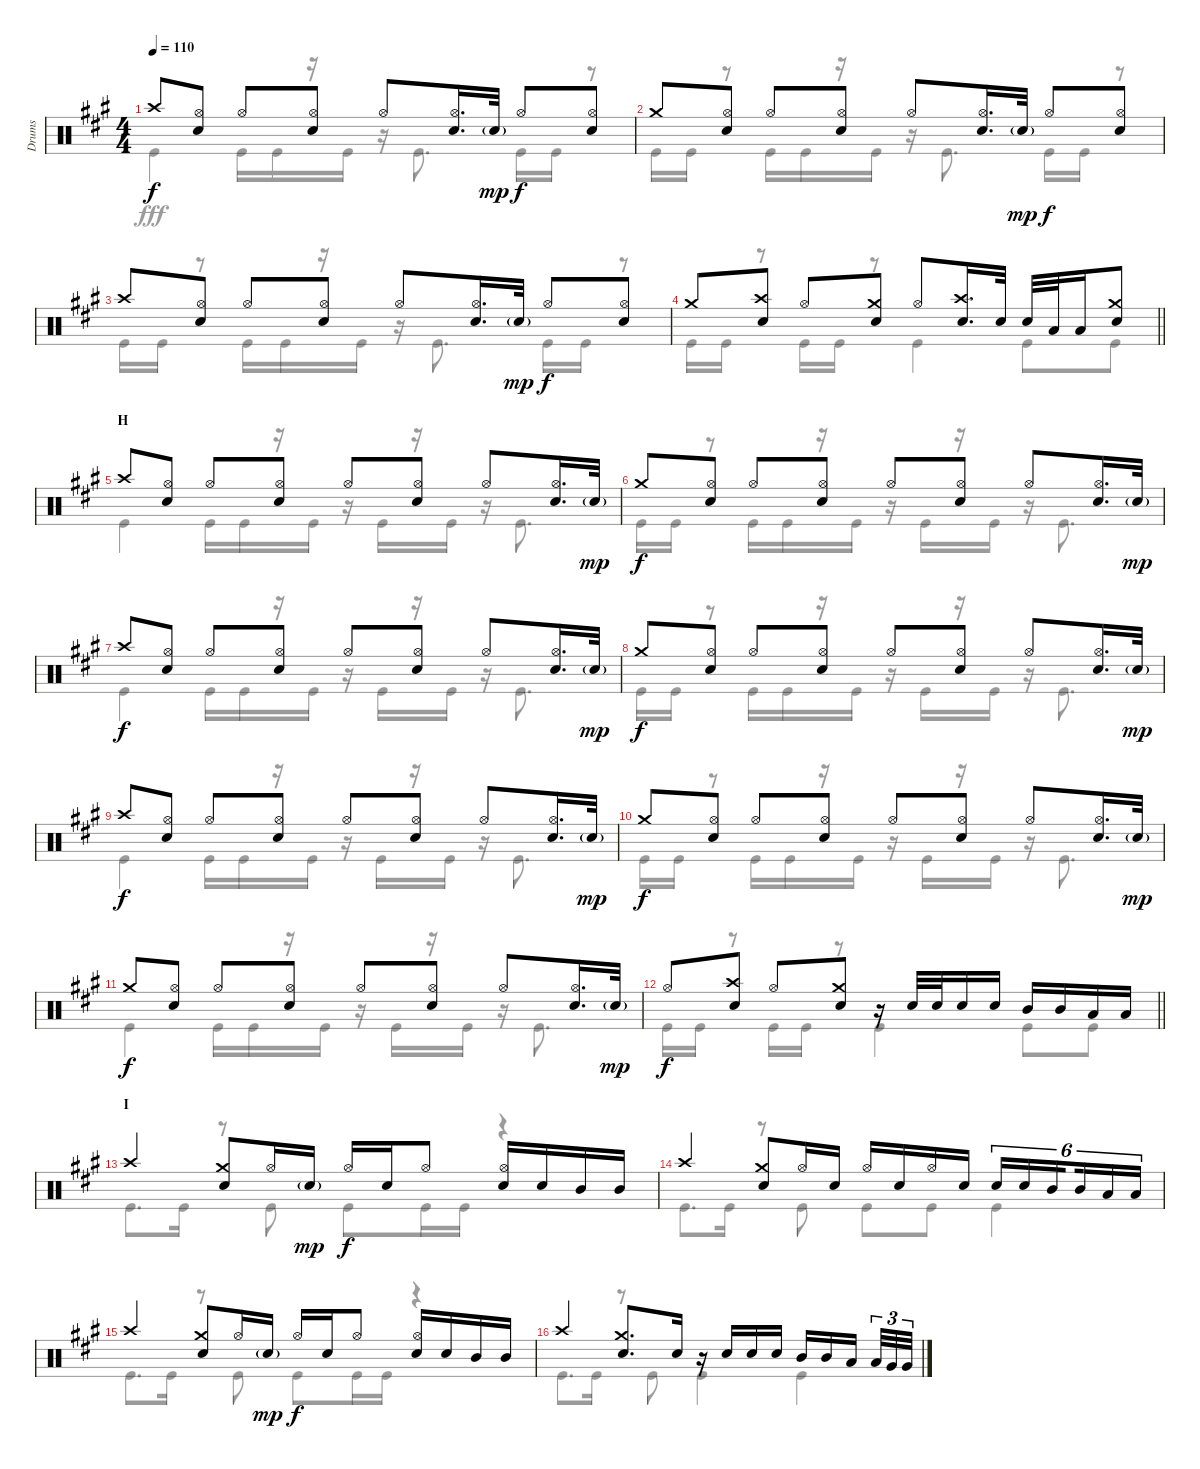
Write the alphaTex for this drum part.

\track ("Drums" "Drums") {instrument percussion}
\staff {score}
\articulation defaults
\voice
\ts (4 4)
\tempo 110
\clef neutral
\ks a "Crash high (hit)".8{dy f}
("Hi-Hat (open)" "Snare (hit) 2").8 "Hi-Hat (open)".8 ("Hi-Hat (open)" "Snare (hit) 2").8 "Hi-Hat (open)".8 ("Hi-Hat (open)" "Snare (hit) 2").16{d} "Snare (hit) 2"{g}.32{dy mp} "Hi-Hat (open)".8{dy f} ("Hi-Hat (open)" "Snare (hit) 2").8 |
"Crash medium (hit)".8 ("Hi-Hat (open)" "Snare (hit) 2").8 "Hi-Hat (open)".8 ("Hi-Hat (open)" "Snare (hit) 2").8 "Hi-Hat (open)".8 ("Hi-Hat (open)" "Snare (hit) 2").16{d} "Snare (hit) 2"{g}.32{dy mp} "Hi-Hat (open)".8{dy f} ("Hi-Hat (open)" "Snare (hit) 2").8 |
"Crash high (hit)".8 ("Hi-Hat (open)" "Snare (hit) 2").8 "Hi-Hat (open)".8 ("Hi-Hat (open)" "Snare (hit) 2").8 "Hi-Hat (open)".8 ("Hi-Hat (open)" "Snare (hit) 2").16{d} "Snare (hit) 2"{g}.32{dy mp} "Hi-Hat (open)".8{dy f} ("Hi-Hat (open)" "Snare (hit) 2").8 |
\barLineRight lightlight "Crash medium (hit)".8
("Crash high (hit)" "Snare (hit) 2").8 "Hi-Hat (open)".8 ("Crash medium (hit)" "Snare (hit) 2").8 "Hi-Hat (open)".8 ("Crash high (hit)" "Snare (hit) 2").16{d} "Snare (hit) 2".32 "Snare (hit) 2".32 "Low Tom (hit)".32 "Low Tom (hit)".16 ("Crash medium (hit)" "Snare (hit) 2").8 |
\section ("" "H")
"Crash high (hit)".8 ("Hi-Hat (open)" "Snare (hit) 2").8 "Hi-Hat (open)".8 ("Hi-Hat (open)" "Snare (hit) 2").8 "Hi-Hat (open)".8 ("Hi-Hat (open)" "Snare (hit) 2").8 "Hi-Hat (open)".8 ("Hi-Hat (open)" "Snare (hit) 2").16{d} "Snare (hit) 2"{g}.32{dy mp} |
"Crash medium (hit)".8{dy f} ("Hi-Hat (open)" "Snare (hit) 2").8 "Hi-Hat (open)".8 ("Hi-Hat (open)" "Snare (hit) 2").8 "Hi-Hat (open)".8 ("Hi-Hat (open)" "Snare (hit) 2").8 "Hi-Hat (open)".8 ("Hi-Hat (open)" "Snare (hit) 2").16{d} "Snare (hit) 2"{g}.32{dy mp} |
"Crash high (hit)".8{dy f} ("Hi-Hat (open)" "Snare (hit) 2").8 "Hi-Hat (open)".8 ("Hi-Hat (open)" "Snare (hit) 2").8 "Hi-Hat (open)".8 ("Hi-Hat (open)" "Snare (hit) 2").8 "Hi-Hat (open)".8 ("Hi-Hat (open)" "Snare (hit) 2").16{d} "Snare (hit) 2"{g}.32{dy mp} |
"Crash medium (hit)".8{dy f} ("Hi-Hat (open)" "Snare (hit) 2").8 "Hi-Hat (open)".8 ("Hi-Hat (open)" "Snare (hit) 2").8 "Hi-Hat (open)".8 ("Hi-Hat (open)" "Snare (hit) 2").8 "Hi-Hat (open)".8 ("Hi-Hat (open)" "Snare (hit) 2").16{d} "Snare (hit) 2"{g}.32{dy mp} |
"Crash high (hit)".8{dy f} ("Hi-Hat (open)" "Snare (hit) 2").8 "Hi-Hat (open)".8 ("Hi-Hat (open)" "Snare (hit) 2").8 "Hi-Hat (open)".8 ("Hi-Hat (open)" "Snare (hit) 2").8 "Hi-Hat (open)".8 ("Hi-Hat (open)" "Snare (hit) 2").16{d} "Snare (hit) 2"{g}.32{dy mp} |
"Crash medium (hit)".8{dy f} ("Hi-Hat (open)" "Snare (hit) 2").8 "Hi-Hat (open)".8 ("Hi-Hat (open)" "Snare (hit) 2").8 "Hi-Hat (open)".8 ("Hi-Hat (open)" "Snare (hit) 2").8 "Hi-Hat (open)".8 ("Hi-Hat (open)" "Snare (hit) 2").16{d} "Snare (hit) 2"{g}.32{dy mp} |
"Crash medium (hit)".8{dy f} ("Hi-Hat (open)" "Snare (hit) 2").8 "Hi-Hat (open)".8 ("Hi-Hat (open)" "Snare (hit) 2").8 "Hi-Hat (open)".8 ("Hi-Hat (open)" "Snare (hit) 2").8 "Hi-Hat (open)".8 ("Hi-Hat (open)" "Snare (hit) 2").16{d} "Snare (hit) 2"{g}.32{dy mp} |
\barLineRight lightlight "Hi-Hat (open)".8{dy f}
("Crash high (hit)" "Snare (hit) 2").8 "Hi-Hat (open)".8 ("Crash medium (hit)" "Snare (hit) 2").8 r.16 "Snare (hit) 2".32 "Snare (hit) 2".32 "Snare (hit) 2".16 "Snare (hit) 2".16 "Mid Tom (hit)".16 "Mid Tom (hit)".16 "Low Tom (hit)".16 "Low Tom (hit)".16 |
\section ("" "I")
"Crash high (hit)".4 ("Crash medium (hit)" "Snare (hit) 2").8 "Hi-Hat (open)".16 "Snare (hit) 2"{g}.16{dy mp} "Hi-Hat (open)".16{dy f} "Snare (hit) 2".16 "Hi-Hat (open)".8 ("Hi-Hat (open)" "Snare (hit) 2").16 "Snare (hit) 2".16 "Mid Tom (hit)".16 "Mid Tom (hit)".16 |
"Crash high (hit)".4 ("Crash medium (hit)" "Snare (hit) 2").8 "Hi-Hat (open)".16 "Snare (hit) 2".16 "Hi-Hat (open)".16 "Snare (hit) 2".16 "Hi-Hat (open)".16 "Snare (hit) 2".16 "Snare (hit) 2".16{tu (6 4)} "Snare (hit) 2".16{tu (6 4)} "Mid Tom (hit)".16{tu (6 4) beam splitsecondary} "Mid Tom (hit)".16{tu (6 4)} "Low Tom (hit)".16{tu (6 4)} "Low Tom (hit)".16{tu (6 4)} |
"Crash high (hit)".4 ("Crash medium (hit)" "Snare (hit) 2").8 "Hi-Hat (open)".16 "Snare (hit) 2"{g}.16{dy mp} "Hi-Hat (open)".16{dy f} "Snare (hit) 2".16 "Hi-Hat (open)".8 ("Hi-Hat (open)" "Snare (hit) 2").16 "Snare (hit) 2".16 "Mid Tom (hit)".16 "Mid Tom (hit)".16 |
"Crash high (hit)".4 ("Crash medium (hit)" "Snare (hit) 2").8{d} "Snare (hit) 2".16 r.16 "Snare (hit) 2".16 "Snare (hit) 2".16 "Snare (hit) 2".16 "Mid Tom (hit)".16 "Mid Tom (hit)".16 "Low Tom (hit)".16{beam splitsecondary} "Low Tom (hit)".32{tu (3 2)} "Very Low Tom (hit)".32{tu (3 2)} "Very Low Tom (hit)".32{tu (3 2)}
\voice
\clef neutral
\ottava regular
\simile none
\ks a "Kick (hit)".4{dy fff} "Kick (hit)".16 "Kick (hit)".16
r.16 "Kick (hit)".16 r.16 "Kick (hit)".8{d} "Kick (hit)".16 "Kick (hit)".16 r.8 |
"Kick (hit)".16 "Kick (hit)".16 r.8 "Kick (hit)".16 "Kick (hit)".16 r.16 "Kick (hit)".16 r.16 "Kick (hit)".8{d} "Kick (hit)".16 "Kick (hit)".16 r.8 |
"Kick (hit)".16 "Kick (hit)".16 r.8 "Kick (hit)".16 "Kick (hit)".16 r.16 "Kick (hit)".16 r.16 "Kick (hit)".8{d} "Kick (hit)".16 "Kick (hit)".16 r.8 |
\barLineRight lightlight "Kick (hit)".16 "Kick (hit)".16
r.8 "Kick (hit)".16 "Kick (hit)".16 r.8 "Kick (hit)".4 "Kick (hit)".8 "Kick (hit)".8 |
"Kick (hit)".4 "Kick (hit)".16 "Kick (hit)".16 r.16 "Kick (hit)".16 r.16 "Kick (hit)".16 r.16 "Kick (hit)".16 r.16 "Kick (hit)".8{d} |
"Kick (hit)".16 "Kick (hit)".16 r.8 "Kick (hit)".16 "Kick (hit)".16 r.16 "Kick (hit)".16 r.16 "Kick (hit)".16 r.16 "Kick (hit)".16 r.16 "Kick (hit)".8{d} |
"Kick (hit)".4 "Kick (hit)".16 "Kick (hit)".16 r.16 "Kick (hit)".16 r.16 "Kick (hit)".16 r.16 "Kick (hit)".16 r.16 "Kick (hit)".8{d} |
"Kick (hit)".16 "Kick (hit)".16 r.8 "Kick (hit)".16 "Kick (hit)".16 r.16 "Kick (hit)".16 r.16 "Kick (hit)".16 r.16 "Kick (hit)".16 r.16 "Kick (hit)".8{d} |
"Kick (hit)".4 "Kick (hit)".16 "Kick (hit)".16 r.16 "Kick (hit)".16 r.16 "Kick (hit)".16 r.16 "Kick (hit)".16 r.16 "Kick (hit)".8{d} |
"Kick (hit)".16 "Kick (hit)".16 r.8 "Kick (hit)".16 "Kick (hit)".16 r.16 "Kick (hit)".16 r.16 "Kick (hit)".16 r.16 "Kick (hit)".16 r.16 "Kick (hit)".8{d} |
"Kick (hit)".4 "Kick (hit)".16 "Kick (hit)".16 r.16 "Kick (hit)".16 r.16 "Kick (hit)".16 r.16 "Kick (hit)".16 r.16 "Kick (hit)".8{d} |
\barLineRight lightlight "Kick (hit)".16 "Kick (hit)".16
r.8 "Kick (hit)".16 "Kick (hit)".16 r.8 "Kick (hit)".4 "Kick (hit)".8 "Kick (hit)".8 |
"Kick (hit)".8{d} "Kick (hit)".16 r.8 "Kick (hit)".8 "Kick (hit)".8 "Kick (hit)".16 "Kick (hit)".16 r.4 |
"Kick (hit)".8{d} "Kick (hit)".16 r.8 "Kick (hit)".8 "Kick (hit)".8 "Kick (hit)".8 "Kick (hit)".4 |
"Kick (hit)".8{d} "Kick (hit)".16 r.8 "Kick (hit)".8 "Kick (hit)".8 "Kick (hit)".16 "Kick (hit)".16 r.4 |
"Kick (hit)".8{d} "Kick (hit)".16 r.8 "Kick (hit)".8 "Kick (hit)".4 "Kick (hit)".4
